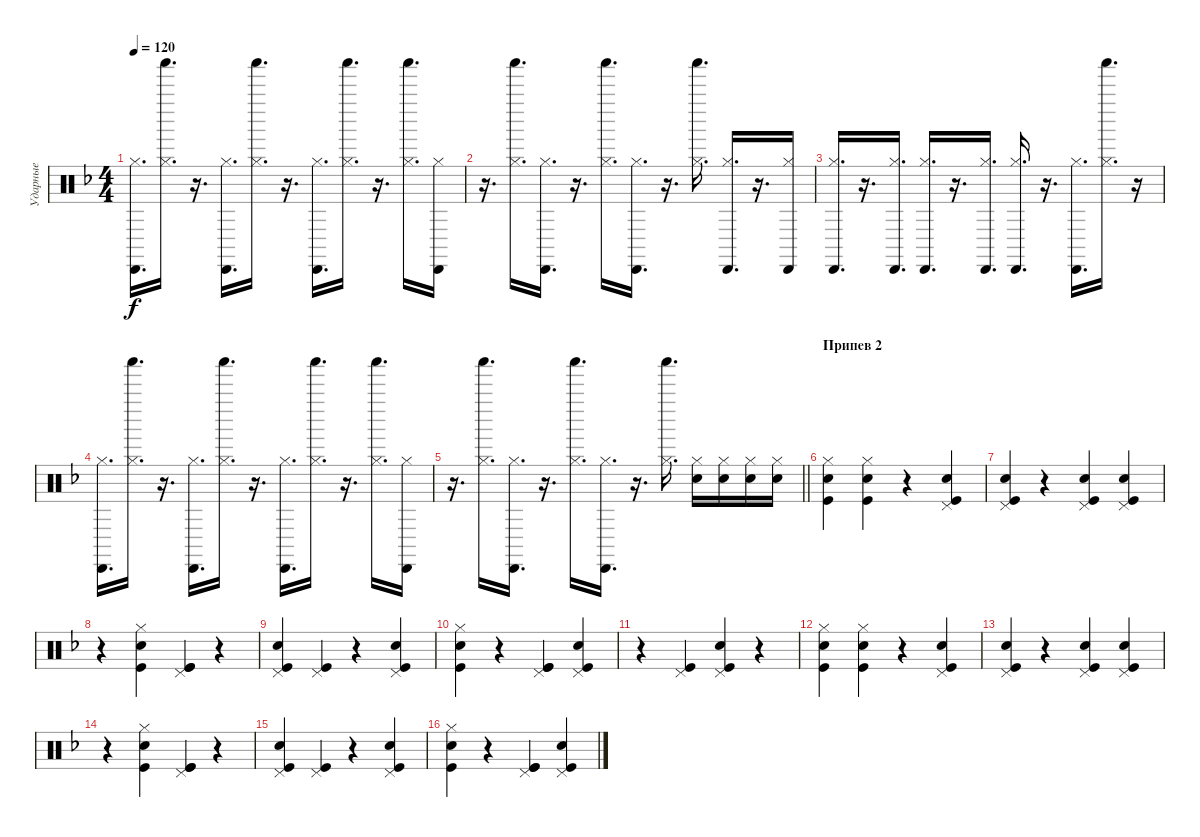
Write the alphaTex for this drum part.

\track ("Ударные" "Ударные") {instrument percussion}
\staff {score}
\articulation defaults
\ts (4 4)
\tempo 120
\clef neutral
\ks f
("Hi-Hat (closed)" "Cabasa (hit)").16{d dy f} ("Hi-Hat (closed)" "Shaker (hit)").16{d} r.16{d} ("Hi-Hat (closed)" "Cabasa (hit)").16{d} ("Hi-Hat (closed)" "Shaker (hit)").16{d} r.16{d} ("Hi-Hat (closed)" "Cabasa (hit)").16{d} ("Hi-Hat (closed)" "Shaker (hit)").16{d} r.16{d} ("Hi-Hat (closed)" "Shaker (hit)").16{d} ("Hi-Hat (closed)" "Cabasa (hit)").16 |
r.16{d} ("Hi-Hat (closed)" "Shaker (hit)").16{d} ("Hi-Hat (closed)" "Cabasa (hit)").16{d} r.16{d} ("Hi-Hat (closed)" "Shaker (hit)").16{d} ("Hi-Hat (closed)" "Cabasa (hit)").16{d} r.16{d} ("Hi-Hat (closed)" "Shaker (hit)").16{d} ("Hi-Hat (closed)" "Cabasa (hit)").16{d} r.16{d} ("Hi-Hat (closed)" "Cabasa (hit)").16 |
("Hi-Hat (closed)" "Cabasa (hit)").16{d} r.16{d} ("Hi-Hat (closed)" "Cabasa (hit)").16{d} ("Hi-Hat (closed)" "Cabasa (hit)").16{d} r.16{d} ("Hi-Hat (closed)" "Cabasa (hit)").16{d} ("Hi-Hat (closed)" "Cabasa (hit)").16{d} r.16{d} ("Hi-Hat (closed)" "Cabasa (hit)").16{d} ("Hi-Hat (closed)" "Shaker (hit)").16{d} r.16 |
("Hi-Hat (closed)" "Cabasa (hit)").16{d} ("Hi-Hat (closed)" "Shaker (hit)").16{d} r.16{d} ("Hi-Hat (closed)" "Cabasa (hit)").16{d} ("Hi-Hat (closed)" "Shaker (hit)").16{d} r.16{d} ("Hi-Hat (closed)" "Cabasa (hit)").16{d} ("Hi-Hat (closed)" "Shaker (hit)").16{d} r.16{d} ("Hi-Hat (closed)" "Shaker (hit)").16{d} ("Hi-Hat (closed)" "Cabasa (hit)").16 |
\barLineRight lightlight
r.16{d} ("Hi-Hat (closed)" "Shaker (hit)").16{d} ("Hi-Hat (closed)" "Cabasa (hit)").16{d} r.16{d} ("Hi-Hat (closed)" "Shaker (hit)").16{d} ("Hi-Hat (closed)" "Cabasa (hit)").16{d} r.16{d} ("Hi-Hat (closed)" "Shaker (hit)").16{d} ("Snare (hit) 2" "Hi-Hat (closed)").16{volume 13} ("Snare (hit) 2" "Hi-Hat (closed)").16 ("Snare (hit) 2" "Hi-Hat (closed)").16 ("Snare (hit) 2" "Hi-Hat (closed)").16 |
\section ("" "Припев 2")
("Kick (hit)" "Snare (hit) 2" "Hi-Hat (closed)").4 ("Kick (hit)" "Snare (hit) 2" "Hi-Hat (closed)").4 r.4 ("Kick (hit)" "Snare (hit) 2" "Pedal Hi-Hat (hit)").4 |
("Kick (hit)" "Snare (hit) 2" "Pedal Hi-Hat (hit)").4 r.4 ("Kick (hit)" "Snare (hit) 2" "Pedal Hi-Hat (hit)").4 ("Kick (hit)" "Snare (hit) 2" "Pedal Hi-Hat (hit)").4 |
r.4 ("Kick (hit)" "Snare (hit) 2" "Hi-Hat (closed)").4 ("Kick (hit)" "Kick (hit)" "Pedal Hi-Hat (hit)").4 r.4 |
("Kick (hit)" "Snare (hit) 2" "Pedal Hi-Hat (hit)").4 ("Kick (hit)" "Pedal Hi-Hat (hit)").4 r.4 ("Kick (hit)" "Snare (hit) 2" "Pedal Hi-Hat (hit)").4 |
("Kick (hit)" "Snare (hit) 2" "Hi-Hat (closed)").4 r.4 ("Kick (hit)" "Kick (hit)" "Pedal Hi-Hat (hit)").4 ("Kick (hit)" "Snare (hit) 2" "Pedal Hi-Hat (hit)").4 |
r.4 ("Kick (hit)" "Pedal Hi-Hat (hit)").4 ("Kick (hit)" "Snare (hit) 2" "Pedal Hi-Hat (hit)").4 r.4 |
("Kick (hit)" "Snare (hit) 2" "Hi-Hat (closed)").4 ("Kick (hit)" "Snare (hit) 2" "Hi-Hat (closed)").4 r.4 ("Kick (hit)" "Snare (hit) 2" "Pedal Hi-Hat (hit)").4 |
("Kick (hit)" "Snare (hit) 2" "Pedal Hi-Hat (hit)").4 r.4 ("Kick (hit)" "Snare (hit) 2" "Pedal Hi-Hat (hit)").4 ("Kick (hit)" "Snare (hit) 2" "Pedal Hi-Hat (hit)").4 |
r.4 ("Kick (hit)" "Snare (hit) 2" "Hi-Hat (closed)").4 ("Kick (hit)" "Kick (hit)" "Pedal Hi-Hat (hit)").4 r.4 |
("Kick (hit)" "Snare (hit) 2" "Pedal Hi-Hat (hit)").4 ("Kick (hit)" "Pedal Hi-Hat (hit)").4 r.4 ("Kick (hit)" "Snare (hit) 2" "Pedal Hi-Hat (hit)").4 |
("Kick (hit)" "Snare (hit) 2" "Hi-Hat (closed)").4 r.4 ("Kick (hit)" "Kick (hit)" "Pedal Hi-Hat (hit)").4 ("Kick (hit)" "Snare (hit) 2" "Pedal Hi-Hat (hit)").4
